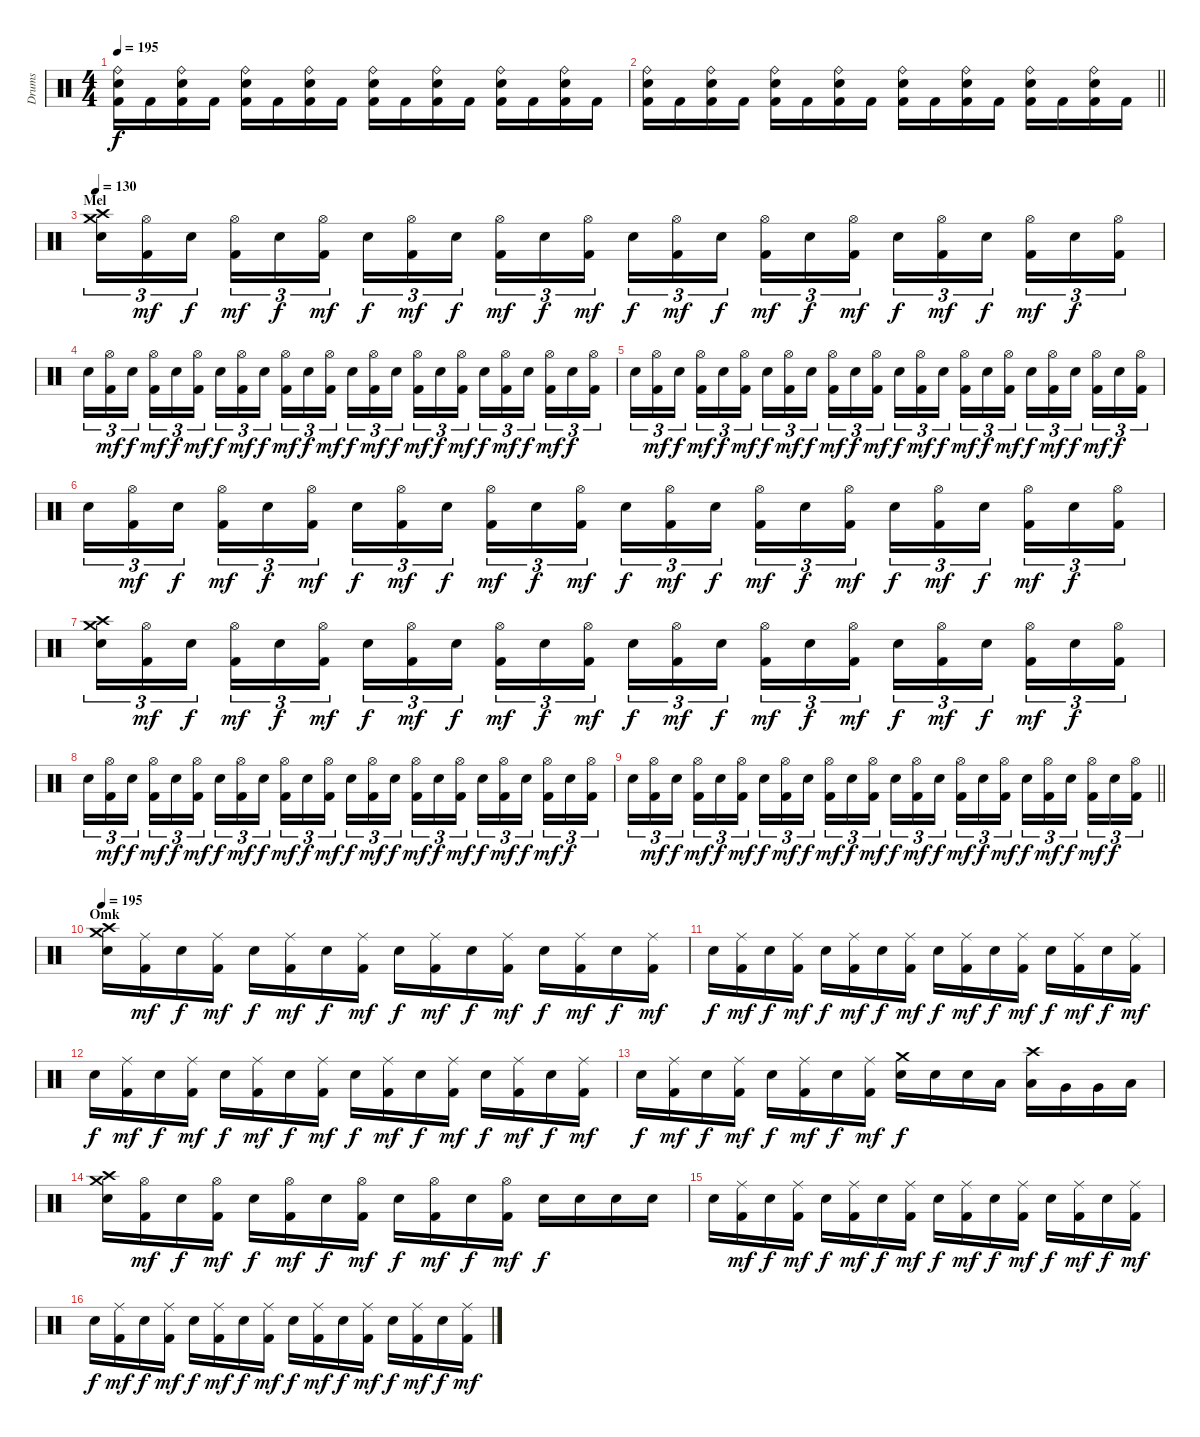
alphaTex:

\track ("Drums" "Drums") {instrument percussion}
\staff {score}
\articulation defaults
\ts (4 4)
\tempo 195
\clef neutral
\ks c
("Ride (bell)" "Electric Snare (hit)" "Kick (hit) 2").16{dy f} "Kick (hit) 2".16 ("Ride (bell)" "Electric Snare (hit)" "Kick (hit) 2").16 "Kick (hit) 2".16 ("Ride (bell)" "Electric Snare (hit)" "Kick (hit) 2").16 "Kick (hit) 2".16 ("Ride (bell)" "Electric Snare (hit)" "Kick (hit) 2").16 "Kick (hit) 2".16 ("Ride (bell)" "Electric Snare (hit)" "Kick (hit) 2").16 "Kick (hit) 2".16 ("Ride (bell)" "Electric Snare (hit)" "Kick (hit) 2").16 "Kick (hit) 2".16 ("Ride (bell)" "Electric Snare (hit)" "Kick (hit) 2").16 "Kick (hit) 2".16 ("Ride (bell)" "Electric Snare (hit)" "Kick (hit) 2").16 "Kick (hit) 2".16 |
\barLineRight lightlight
("Ride (bell)" "Electric Snare (hit)" "Kick (hit) 2").16 "Kick (hit) 2".16 ("Ride (bell)" "Electric Snare (hit)" "Kick (hit) 2").16 "Kick (hit) 2".16 ("Ride (bell)" "Electric Snare (hit)" "Kick (hit) 2").16 "Kick (hit) 2".16 ("Ride (bell)" "Electric Snare (hit)" "Kick (hit) 2").16 "Kick (hit) 2".16 ("Ride (bell)" "Electric Snare (hit)" "Kick (hit) 2").16 "Kick (hit) 2".16 ("Ride (bell)" "Electric Snare (hit)" "Kick (hit) 2").16 "Kick (hit) 2".16 ("Ride (bell)" "Electric Snare (hit)" "Kick (hit) 2").16 "Kick (hit) 2".16 ("Ride (bell)" "Electric Snare (hit)" "Kick (hit) 2").16 "Kick (hit) 2".16 |
\section ("" "Mel")
\tempo 130
("Crash medium (hit)" "Crash high (hit)" "Snare (hit) 2").16{tu (3 2)} ("Hi-Hat (open)" "Kick (hit) 2").16{tu (3 2) dy mf} "Snare (hit) 2".16{tu (3 2) dy f beam splitsecondary} ("Hi-Hat (open)" "Kick (hit) 2").16{tu (3 2) dy mf} "Snare (hit) 2".16{tu (3 2) dy f} ("Hi-Hat (open)" "Kick (hit) 2").16{tu (3 2) dy mf} "Snare (hit) 2".16{tu (3 2) dy f} ("Hi-Hat (open)" "Kick (hit) 2").16{tu (3 2) dy mf} "Snare (hit) 2".16{tu (3 2) dy f beam splitsecondary} ("Hi-Hat (open)" "Kick (hit) 2").16{tu (3 2) dy mf} "Snare (hit) 2".16{tu (3 2) dy f} ("Hi-Hat (open)" "Kick (hit) 2").16{tu (3 2) dy mf} "Snare (hit) 2".16{tu (3 2) dy f} ("Hi-Hat (open)" "Kick (hit) 2").16{tu (3 2) dy mf} "Snare (hit) 2".16{tu (3 2) dy f beam splitsecondary} ("Hi-Hat (open)" "Kick (hit) 2").16{tu (3 2) dy mf} "Snare (hit) 2".16{tu (3 2) dy f} ("Hi-Hat (open)" "Kick (hit) 2").16{tu (3 2) dy mf} "Snare (hit) 2".16{tu (3 2) dy f} ("Hi-Hat (open)" "Kick (hit) 2").16{tu (3 2) dy mf} "Snare (hit) 2".16{tu (3 2) dy f beam splitsecondary} ("Hi-Hat (open)" "Kick (hit) 2").16{tu (3 2) dy mf} "Snare (hit) 2".16{tu (3 2) dy f} ("Hi-Hat (open)" "Kick (hit) 2").16{tu (3 2)} |
"Snare (hit) 2".16{tu (3 2)} ("Hi-Hat (open)" "Kick (hit) 2").16{tu (3 2) dy mf} "Snare (hit) 2".16{tu (3 2) dy f beam splitsecondary} ("Hi-Hat (open)" "Kick (hit) 2").16{tu (3 2) dy mf} "Snare (hit) 2".16{tu (3 2) dy f} ("Hi-Hat (open)" "Kick (hit) 2").16{tu (3 2) dy mf} "Snare (hit) 2".16{tu (3 2) dy f} ("Hi-Hat (open)" "Kick (hit) 2").16{tu (3 2) dy mf} "Snare (hit) 2".16{tu (3 2) dy f beam splitsecondary} ("Hi-Hat (open)" "Kick (hit) 2").16{tu (3 2) dy mf} "Snare (hit) 2".16{tu (3 2) dy f} ("Hi-Hat (open)" "Kick (hit) 2").16{tu (3 2) dy mf} "Snare (hit) 2".16{tu (3 2) dy f} ("Hi-Hat (open)" "Kick (hit) 2").16{tu (3 2) dy mf} "Snare (hit) 2".16{tu (3 2) dy f beam splitsecondary} ("Hi-Hat (open)" "Kick (hit) 2").16{tu (3 2) dy mf} "Snare (hit) 2".16{tu (3 2) dy f} ("Hi-Hat (open)" "Kick (hit) 2").16{tu (3 2) dy mf} "Snare (hit) 2".16{tu (3 2) dy f} ("Hi-Hat (open)" "Kick (hit) 2").16{tu (3 2) dy mf} "Snare (hit) 2".16{tu (3 2) dy f beam splitsecondary} ("Hi-Hat (open)" "Kick (hit) 2").16{tu (3 2) dy mf} "Snare (hit) 2".16{tu (3 2) dy f} ("Hi-Hat (open)" "Kick (hit) 2").16{tu (3 2)} |
"Snare (hit) 2".16{tu (3 2)} ("Hi-Hat (open)" "Kick (hit) 2").16{tu (3 2) dy mf} "Snare (hit) 2".16{tu (3 2) dy f beam splitsecondary} ("Hi-Hat (open)" "Kick (hit) 2").16{tu (3 2) dy mf} "Snare (hit) 2".16{tu (3 2) dy f} ("Hi-Hat (open)" "Kick (hit) 2").16{tu (3 2) dy mf} "Snare (hit) 2".16{tu (3 2) dy f} ("Hi-Hat (open)" "Kick (hit) 2").16{tu (3 2) dy mf} "Snare (hit) 2".16{tu (3 2) dy f beam splitsecondary} ("Hi-Hat (open)" "Kick (hit) 2").16{tu (3 2) dy mf} "Snare (hit) 2".16{tu (3 2) dy f} ("Hi-Hat (open)" "Kick (hit) 2").16{tu (3 2) dy mf} "Snare (hit) 2".16{tu (3 2) dy f} ("Hi-Hat (open)" "Kick (hit) 2").16{tu (3 2) dy mf} "Snare (hit) 2".16{tu (3 2) dy f beam splitsecondary} ("Hi-Hat (open)" "Kick (hit) 2").16{tu (3 2) dy mf} "Snare (hit) 2".16{tu (3 2) dy f} ("Hi-Hat (open)" "Kick (hit) 2").16{tu (3 2) dy mf} "Snare (hit) 2".16{tu (3 2) dy f} ("Hi-Hat (open)" "Kick (hit) 2").16{tu (3 2) dy mf} "Snare (hit) 2".16{tu (3 2) dy f beam splitsecondary} ("Hi-Hat (open)" "Kick (hit) 2").16{tu (3 2) dy mf} "Snare (hit) 2".16{tu (3 2) dy f} ("Hi-Hat (open)" "Kick (hit) 2").16{tu (3 2)} |
"Snare (hit) 2".16{tu (3 2)} ("Hi-Hat (open)" "Kick (hit) 2").16{tu (3 2) dy mf} "Snare (hit) 2".16{tu (3 2) dy f beam splitsecondary} ("Hi-Hat (open)" "Kick (hit) 2").16{tu (3 2) dy mf} "Snare (hit) 2".16{tu (3 2) dy f} ("Hi-Hat (open)" "Kick (hit) 2").16{tu (3 2) dy mf} "Snare (hit) 2".16{tu (3 2) dy f} ("Hi-Hat (open)" "Kick (hit) 2").16{tu (3 2) dy mf} "Snare (hit) 2".16{tu (3 2) dy f beam splitsecondary} ("Hi-Hat (open)" "Kick (hit) 2").16{tu (3 2) dy mf} "Snare (hit) 2".16{tu (3 2) dy f} ("Hi-Hat (open)" "Kick (hit) 2").16{tu (3 2) dy mf} "Snare (hit) 2".16{tu (3 2) dy f} ("Hi-Hat (open)" "Kick (hit) 2").16{tu (3 2) dy mf} "Snare (hit) 2".16{tu (3 2) dy f beam splitsecondary} ("Hi-Hat (open)" "Kick (hit) 2").16{tu (3 2) dy mf} "Snare (hit) 2".16{tu (3 2) dy f} ("Hi-Hat (open)" "Kick (hit) 2").16{tu (3 2) dy mf} "Snare (hit) 2".16{tu (3 2) dy f} ("Hi-Hat (open)" "Kick (hit) 2").16{tu (3 2) dy mf} "Snare (hit) 2".16{tu (3 2) dy f beam splitsecondary} ("Hi-Hat (open)" "Kick (hit) 2").16{tu (3 2) dy mf} "Snare (hit) 2".16{tu (3 2) dy f} ("Hi-Hat (open)" "Kick (hit) 2").16{tu (3 2)} |
("Crash medium (hit)" "Crash high (hit)" "Snare (hit) 2").16{tu (3 2)} ("Hi-Hat (open)" "Kick (hit) 2").16{tu (3 2) dy mf} "Snare (hit) 2".16{tu (3 2) dy f beam splitsecondary} ("Hi-Hat (open)" "Kick (hit) 2").16{tu (3 2) dy mf} "Snare (hit) 2".16{tu (3 2) dy f} ("Hi-Hat (open)" "Kick (hit) 2").16{tu (3 2) dy mf} "Snare (hit) 2".16{tu (3 2) dy f} ("Hi-Hat (open)" "Kick (hit) 2").16{tu (3 2) dy mf} "Snare (hit) 2".16{tu (3 2) dy f beam splitsecondary} ("Hi-Hat (open)" "Kick (hit) 2").16{tu (3 2) dy mf} "Snare (hit) 2".16{tu (3 2) dy f} ("Hi-Hat (open)" "Kick (hit) 2").16{tu (3 2) dy mf} "Snare (hit) 2".16{tu (3 2) dy f} ("Hi-Hat (open)" "Kick (hit) 2").16{tu (3 2) dy mf} "Snare (hit) 2".16{tu (3 2) dy f beam splitsecondary} ("Hi-Hat (open)" "Kick (hit) 2").16{tu (3 2) dy mf} "Snare (hit) 2".16{tu (3 2) dy f} ("Hi-Hat (open)" "Kick (hit) 2").16{tu (3 2) dy mf} "Snare (hit) 2".16{tu (3 2) dy f} ("Hi-Hat (open)" "Kick (hit) 2").16{tu (3 2) dy mf} "Snare (hit) 2".16{tu (3 2) dy f beam splitsecondary} ("Hi-Hat (open)" "Kick (hit) 2").16{tu (3 2) dy mf} "Snare (hit) 2".16{tu (3 2) dy f} ("Hi-Hat (open)" "Kick (hit) 2").16{tu (3 2)} |
"Snare (hit) 2".16{tu (3 2)} ("Hi-Hat (open)" "Kick (hit) 2").16{tu (3 2) dy mf} "Snare (hit) 2".16{tu (3 2) dy f beam splitsecondary} ("Hi-Hat (open)" "Kick (hit) 2").16{tu (3 2) dy mf} "Snare (hit) 2".16{tu (3 2) dy f} ("Hi-Hat (open)" "Kick (hit) 2").16{tu (3 2) dy mf} "Snare (hit) 2".16{tu (3 2) dy f} ("Hi-Hat (open)" "Kick (hit) 2").16{tu (3 2) dy mf} "Snare (hit) 2".16{tu (3 2) dy f beam splitsecondary} ("Hi-Hat (open)" "Kick (hit) 2").16{tu (3 2) dy mf} "Snare (hit) 2".16{tu (3 2) dy f} ("Hi-Hat (open)" "Kick (hit) 2").16{tu (3 2) dy mf} "Snare (hit) 2".16{tu (3 2) dy f} ("Hi-Hat (open)" "Kick (hit) 2").16{tu (3 2) dy mf} "Snare (hit) 2".16{tu (3 2) dy f beam splitsecondary} ("Hi-Hat (open)" "Kick (hit) 2").16{tu (3 2) dy mf} "Snare (hit) 2".16{tu (3 2) dy f} ("Hi-Hat (open)" "Kick (hit) 2").16{tu (3 2) dy mf} "Snare (hit) 2".16{tu (3 2) dy f} ("Hi-Hat (open)" "Kick (hit) 2").16{tu (3 2) dy mf} "Snare (hit) 2".16{tu (3 2) dy f beam splitsecondary} ("Hi-Hat (open)" "Kick (hit) 2").16{tu (3 2) dy mf} "Snare (hit) 2".16{tu (3 2) dy f} ("Hi-Hat (open)" "Kick (hit) 2").16{tu (3 2)} |
\barLineRight lightlight "Snare (hit) 2".16{tu (3 2)}
("Hi-Hat (open)" "Kick (hit) 2").16{tu (3 2) dy mf} "Snare (hit) 2".16{tu (3 2) dy f beam splitsecondary} ("Hi-Hat (open)" "Kick (hit) 2").16{tu (3 2) dy mf} "Snare (hit) 2".16{tu (3 2) dy f} ("Hi-Hat (open)" "Kick (hit) 2").16{tu (3 2) dy mf} "Snare (hit) 2".16{tu (3 2) dy f} ("Hi-Hat (open)" "Kick (hit) 2").16{tu (3 2) dy mf} "Snare (hit) 2".16{tu (3 2) dy f beam splitsecondary} ("Hi-Hat (open)" "Kick (hit) 2").16{tu (3 2) dy mf} "Snare (hit) 2".16{tu (3 2) dy f} ("Hi-Hat (open)" "Kick (hit) 2").16{tu (3 2) dy mf} "Snare (hit) 2".16{tu (3 2) dy f} ("Hi-Hat (open)" "Kick (hit) 2").16{tu (3 2) dy mf} "Snare (hit) 2".16{tu (3 2) dy f beam splitsecondary} ("Hi-Hat (open)" "Kick (hit) 2").16{tu (3 2) dy mf} "Snare (hit) 2".16{tu (3 2) dy f} ("Hi-Hat (open)" "Kick (hit) 2").16{tu (3 2) dy mf} "Snare (hit) 2".16{tu (3 2) dy f} ("Hi-Hat (open)" "Kick (hit) 2").16{tu (3 2) dy mf} "Snare (hit) 2".16{tu (3 2) dy f beam splitsecondary} ("Hi-Hat (open)" "Kick (hit) 2").16{tu (3 2) dy mf} "Snare (hit) 2".16{tu (3 2) dy f} ("Hi-Hat (open)" "Kick (hit) 2").16{tu (3 2)} |
\section ("" "Omk")
\tempo 195
("Crash medium (hit)" "Crash high (hit)" "Snare (hit) 2").16 ("Ride (middle)" "Kick (hit) 2").16{dy mf} "Snare (hit) 2".16{dy f} ("Ride (middle)" "Kick (hit) 2").16{dy mf} "Snare (hit) 2".16{dy f} ("Ride (middle)" "Kick (hit) 2").16{dy mf} "Snare (hit) 2".16{dy f} ("Ride (middle)" "Kick (hit) 2").16{dy mf} "Snare (hit) 2".16{dy f} ("Ride (middle)" "Kick (hit) 2").16{dy mf} "Snare (hit) 2".16{dy f} ("Ride (middle)" "Kick (hit) 2").16{dy mf} "Snare (hit) 2".16{dy f} ("Ride (middle)" "Kick (hit) 2").16{dy mf} "Snare (hit) 2".16{dy f} ("Ride (middle)" "Kick (hit) 2").16{dy mf} |
"Snare (hit) 2".16{dy f} ("Ride (middle)" "Kick (hit) 2").16{dy mf} "Snare (hit) 2".16{dy f} ("Ride (middle)" "Kick (hit) 2").16{dy mf} "Snare (hit) 2".16{dy f} ("Ride (middle)" "Kick (hit) 2").16{dy mf} "Snare (hit) 2".16{dy f} ("Ride (middle)" "Kick (hit) 2").16{dy mf} "Snare (hit) 2".16{dy f} ("Ride (middle)" "Kick (hit) 2").16{dy mf} "Snare (hit) 2".16{dy f} ("Ride (middle)" "Kick (hit) 2").16{dy mf} "Snare (hit) 2".16{dy f} ("Ride (middle)" "Kick (hit) 2").16{dy mf} "Snare (hit) 2".16{dy f} ("Ride (middle)" "Kick (hit) 2").16{dy mf} |
"Snare (hit) 2".16{dy f} ("Ride (middle)" "Kick (hit) 2").16{dy mf} "Snare (hit) 2".16{dy f} ("Ride (middle)" "Kick (hit) 2").16{dy mf} "Snare (hit) 2".16{dy f} ("Ride (middle)" "Kick (hit) 2").16{dy mf} "Snare (hit) 2".16{dy f} ("Ride (middle)" "Kick (hit) 2").16{dy mf} "Snare (hit) 2".16{dy f} ("Ride (middle)" "Kick (hit) 2").16{dy mf} "Snare (hit) 2".16{dy f} ("Ride (middle)" "Kick (hit) 2").16{dy mf} "Snare (hit) 2".16{dy f} ("Ride (middle)" "Kick (hit) 2").16{dy mf} "Snare (hit) 2".16{dy f} ("Ride (middle)" "Kick (hit) 2").16{dy mf} |
"Snare (hit) 2".16{dy f} ("Ride (middle)" "Kick (hit) 2").16{dy mf} "Snare (hit) 2".16{dy f} ("Ride (middle)" "Kick (hit) 2").16{dy mf} "Snare (hit) 2".16{dy f} ("Ride (middle)" "Kick (hit) 2").16{dy mf} "Snare (hit) 2".16{dy f} ("Ride (middle)" "Kick (hit) 2").16{dy mf} ("Crash medium (hit)" "Snare (hit) 2").16{dy f} "Snare (hit) 2".16 "Snare (hit) 2".16 "Low Tom (hit)".16 ("Crash high (hit)" "Low Tom (hit)").16 "Very Low Tom (hit)".16 "Very Low Tom (hit)".16 "Low Floor Tom (hit)".16 |
("Crash medium (hit)" "Crash high (hit)" "Snare (hit) 2").16 ("Hi-Hat (open)" "Kick (hit) 2").16{dy mf} "Snare (hit) 2".16{dy f} ("Hi-Hat (open)" "Kick (hit) 2").16{dy mf} "Snare (hit) 2".16{dy f} ("Hi-Hat (open)" "Kick (hit) 2").16{dy mf} "Snare (hit) 2".16{dy f} ("Hi-Hat (open)" "Kick (hit) 2").16{dy mf} "Snare (hit) 2".16{dy f} ("Hi-Hat (open)" "Kick (hit) 2").16{dy mf} "Snare (hit) 2".16{dy f} ("Hi-Hat (open)" "Kick (hit) 2").16{dy mf} "Snare (hit) 2".16{dy f} "Snare (hit) 2".16 "Snare (hit) 2".16 "Snare (hit) 2".16 |
"Snare (hit) 2".16 ("Ride (middle)" "Kick (hit) 2").16{dy mf} "Snare (hit) 2".16{dy f} ("Ride (middle)" "Kick (hit) 2").16{dy mf} "Snare (hit) 2".16{dy f} ("Ride (middle)" "Kick (hit) 2").16{dy mf} "Snare (hit) 2".16{dy f} ("Ride (middle)" "Kick (hit) 2").16{dy mf} "Snare (hit) 2".16{dy f} ("Ride (middle)" "Kick (hit) 2").16{dy mf} "Snare (hit) 2".16{dy f} ("Ride (middle)" "Kick (hit) 2").16{dy mf} "Snare (hit) 2".16{dy f} ("Ride (middle)" "Kick (hit) 2").16{dy mf} "Snare (hit) 2".16{dy f} ("Ride (middle)" "Kick (hit) 2").16{dy mf} |
"Snare (hit) 2".16{dy f} ("Ride (middle)" "Kick (hit) 2").16{dy mf} "Snare (hit) 2".16{dy f} ("Ride (middle)" "Kick (hit) 2").16{dy mf} "Snare (hit) 2".16{dy f} ("Ride (middle)" "Kick (hit) 2").16{dy mf} "Snare (hit) 2".16{dy f} ("Ride (middle)" "Kick (hit) 2").16{dy mf} "Snare (hit) 2".16{dy f} ("Ride (middle)" "Kick (hit) 2").16{dy mf} "Snare (hit) 2".16{dy f} ("Ride (middle)" "Kick (hit) 2").16{dy mf} "Snare (hit) 2".16{dy f} ("Ride (middle)" "Kick (hit) 2").16{dy mf} "Snare (hit) 2".16{dy f} ("Ride (middle)" "Kick (hit) 2").16{dy mf}
